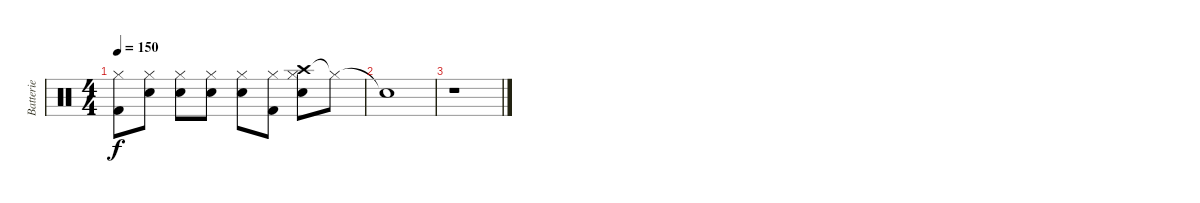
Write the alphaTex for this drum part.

\track ("Batterie" "Batterie") {instrument percussion}
\staff {score}
\articulation defaults
\ts (4 4)
\tempo 150
\clef neutral
\ks c
("Hi-Hat (closed)" "Kick (hit) 2").8{dy f} ("Hi-Hat (closed)" "Electric Snare (hit)").8 ("Hi-Hat (closed)" "Electric Snare (hit)").8 ("Hi-Hat (closed)" "Electric Snare (hit)").8 ("Hi-Hat (closed)" "Electric Snare (hit)").8 ("Hi-Hat (closed)" "Kick (hit) 2").8 ("Crash high (hit)" "Hi-Hat (closed)" "Electric Snare (hit)").8 "Hi-Hat (closed)"{t}.8 |
"Snare (hit)"{t}.1 |
r.1
